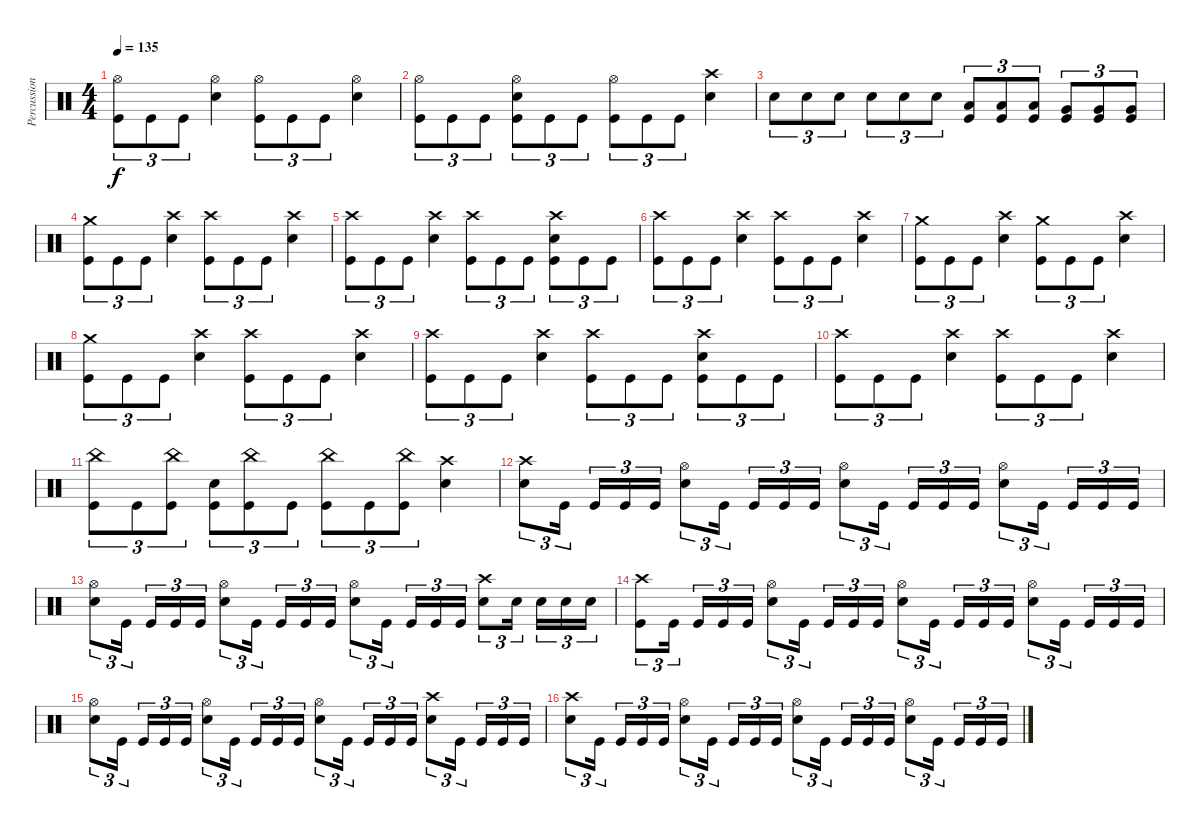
\track ("Percussions" "Percussion") {instrument percussion}
\staff {score}
\articulation defaults
\ts (4 4)
\tempo 135
\clef neutral
\ks c
("Hi-Hat (open)" "Kick (hit)").8{tu (3 2) dy f} "Kick (hit)".8{tu (3 2)} "Kick (hit)".8{tu (3 2)} ("Hi-Hat (open)" "Electric Snare (hit)").4 ("Hi-Hat (open)" "Kick (hit)").8{tu (3 2)} "Kick (hit)".8{tu (3 2)} "Kick (hit)".8{tu (3 2)} ("Hi-Hat (open)" "Electric Snare (hit)").4 |
("Hi-Hat (open)" "Kick (hit)").8{tu (3 2)} "Kick (hit)".8{tu (3 2)} "Kick (hit)".8{tu (3 2)} ("Hi-Hat (open)" "Electric Snare (hit)" "Kick (hit)").8{tu (3 2)} "Kick (hit)".8{tu (3 2)} "Kick (hit)".8{tu (3 2)} ("Hi-Hat (open)" "Kick (hit)").8{tu (3 2)} "Kick (hit)".8{tu (3 2)} "Kick (hit)".8{tu (3 2)} ("Crash high (hit)" "Electric Snare (hit)").4 |
"Electric Snare (hit)".8{tu (3 2)} "Electric Snare (hit)".8{tu (3 2)} "Electric Snare (hit)".8{tu (3 2)} "Electric Snare (hit)".8{tu (3 2)} "Electric Snare (hit)".8{tu (3 2)} "Electric Snare (hit)".8{tu (3 2)} ("Low Tom (hit)" "Kick (hit)").8{tu (3 2)} ("Low Tom (hit)" "Kick (hit)").8{tu (3 2)} ("Low Tom (hit)" "Kick (hit)").8{tu (3 2)} ("Very Low Tom (hit)" "Kick (hit)").8{tu (3 2)} ("Very Low Tom (hit)" "Kick (hit)").8{tu (3 2)} ("Very Low Tom (hit)" "Kick (hit)").8{tu (3 2)} |
("Crash medium (hit)" "Kick (hit)").8{tu (3 2)} "Kick (hit)".8{tu (3 2)} "Kick (hit)".8{tu (3 2)} ("Crash high (hit)" "Electric Snare (hit)").4 ("Crash high (hit)" "Kick (hit)").8{tu (3 2)} "Kick (hit)".8{tu (3 2)} "Kick (hit)".8{tu (3 2)} ("Crash high (hit)" "Electric Snare (hit)").4 |
("Crash high (hit)" "Kick (hit)").8{tu (3 2)} "Kick (hit)".8{tu (3 2)} "Kick (hit)".8{tu (3 2)} ("Crash high (hit)" "Electric Snare (hit)").4 ("Crash high (hit)" "Kick (hit)").8{tu (3 2)} "Kick (hit)".8{tu (3 2)} "Kick (hit)".8{tu (3 2)} ("Crash high (hit)" "Electric Snare (hit)" "Kick (hit)").8{tu (3 2)} "Kick (hit)".8{tu (3 2)} "Kick (hit)".8{tu (3 2)} |
("Crash high (hit)" "Kick (hit)").8{tu (3 2)} "Kick (hit)".8{tu (3 2)} "Kick (hit)".8{tu (3 2)} ("Crash high (hit)" "Electric Snare (hit)").4 ("Crash high (hit)" "Kick (hit)").8{tu (3 2)} "Kick (hit)".8{tu (3 2)} "Kick (hit)".8{tu (3 2)} ("Crash high (hit)" "Electric Snare (hit)").4 |
("Crash medium (hit)" "Kick (hit)").8{tu (3 2)} "Kick (hit)".8{tu (3 2)} "Kick (hit)".8{tu (3 2)} ("Crash high (hit)" "Electric Snare (hit)").4 ("Crash medium (hit)" "Kick (hit)").8{tu (3 2)} "Kick (hit)".8{tu (3 2)} "Kick (hit)".8{tu (3 2)} ("Crash high (hit)" "Electric Snare (hit)").4 |
("Crash medium (hit)" "Kick (hit)").8{tu (3 2)} "Kick (hit)".8{tu (3 2)} "Kick (hit)".8{tu (3 2)} ("Crash high (hit)" "Electric Snare (hit)").4 ("Crash high (hit)" "Kick (hit)").8{tu (3 2)} "Kick (hit)".8{tu (3 2)} "Kick (hit)".8{tu (3 2)} ("Crash high (hit)" "Electric Snare (hit)").4 |
("Crash high (hit)" "Kick (hit)").8{tu (3 2)} "Kick (hit)".8{tu (3 2)} "Kick (hit)".8{tu (3 2)} ("Crash high (hit)" "Electric Snare (hit)").4 ("Crash high (hit)" "Kick (hit)").8{tu (3 2)} "Kick (hit)".8{tu (3 2)} "Kick (hit)".8{tu (3 2)} ("Crash high (hit)" "Electric Snare (hit)" "Kick (hit)").8{tu (3 2)} "Kick (hit)".8{tu (3 2)} "Kick (hit)".8{tu (3 2)} |
("Crash high (hit)" "Kick (hit)").8{tu (3 2)} "Kick (hit)".8{tu (3 2)} "Kick (hit)".8{tu (3 2)} ("Crash high (hit)" "Electric Snare (hit)").4 ("Crash high (hit)" "Kick (hit)").8{tu (3 2)} "Kick (hit)".8{tu (3 2)} "Kick (hit)".8{tu (3 2)} ("Crash high (hit)" "Electric Snare (hit)").4 |
("China (hit)" "Kick (hit)").8{tu (3 2)} "Kick (hit)".8{tu (3 2)} ("China (hit)" "Kick (hit)").8{tu (3 2)} ("Electric Snare (hit)" "Kick (hit)").8{tu (3 2)} ("China (hit)" "Kick (hit)").8{tu (3 2)} "Kick (hit)".8{tu (3 2)} ("China (hit)" "Kick (hit)").8{tu (3 2)} "Kick (hit)".8{tu (3 2)} ("China (hit)" "Kick (hit)").8{tu (3 2)} ("Crash high (hit)" "Electric Snare (hit)").4 |
("Crash high (hit)" "Electric Snare (hit)").8{tu (3 2)} "Kick (hit)".16{tu (3 2) beam splitsecondary} "Kick (hit)".16{tu (3 2)} "Kick (hit)".16{tu (3 2)} "Kick (hit)".16{tu (3 2)} ("Hi-Hat (open)" "Electric Snare (hit)").8{tu (3 2)} "Kick (hit)".16{tu (3 2) beam splitsecondary} "Kick (hit)".16{tu (3 2)} "Kick (hit)".16{tu (3 2)} "Kick (hit)".16{tu (3 2)} ("Hi-Hat (open)" "Electric Snare (hit)").8{tu (3 2)} "Kick (hit)".16{tu (3 2) beam splitsecondary} "Kick (hit)".16{tu (3 2)} "Kick (hit)".16{tu (3 2)} "Kick (hit)".16{tu (3 2)} ("Hi-Hat (open)" "Electric Snare (hit)").8{tu (3 2)} "Kick (hit)".16{tu (3 2) beam splitsecondary} "Kick (hit)".16{tu (3 2)} "Kick (hit)".16{tu (3 2)} "Kick (hit)".16{tu (3 2)} |
("Hi-Hat (open)" "Electric Snare (hit)").8{tu (3 2)} "Kick (hit)".16{tu (3 2) beam splitsecondary} "Kick (hit)".16{tu (3 2)} "Kick (hit)".16{tu (3 2)} "Kick (hit)".16{tu (3 2)} ("Hi-Hat (open)" "Electric Snare (hit)").8{tu (3 2)} "Kick (hit)".16{tu (3 2) beam splitsecondary} "Kick (hit)".16{tu (3 2)} "Kick (hit)".16{tu (3 2)} "Kick (hit)".16{tu (3 2)} ("Hi-Hat (open)" "Electric Snare (hit)").8{tu (3 2)} "Kick (hit)".16{tu (3 2) beam splitsecondary} "Kick (hit)".16{tu (3 2)} "Kick (hit)".16{tu (3 2)} "Kick (hit)".16{tu (3 2)} ("Crash high (hit)" "Electric Snare (hit)").8{tu (3 2)} "Electric Snare (hit)".16{tu (3 2) beam splitsecondary} "Electric Snare (hit)".16{tu (3 2)} "Electric Snare (hit)".16{tu (3 2)} "Electric Snare (hit)".16{tu (3 2)} |
("Crash high (hit)" "Kick (hit)").8{tu (3 2)} "Kick (hit)".16{tu (3 2) beam splitsecondary} "Kick (hit)".16{tu (3 2)} "Kick (hit)".16{tu (3 2)} "Kick (hit)".16{tu (3 2)} ("Hi-Hat (open)" "Electric Snare (hit)").8{tu (3 2)} "Kick (hit)".16{tu (3 2) beam splitsecondary} "Kick (hit)".16{tu (3 2)} "Kick (hit)".16{tu (3 2)} "Kick (hit)".16{tu (3 2)} ("Hi-Hat (open)" "Electric Snare (hit)").8{tu (3 2)} "Kick (hit)".16{tu (3 2) beam splitsecondary} "Kick (hit)".16{tu (3 2)} "Kick (hit)".16{tu (3 2)} "Kick (hit)".16{tu (3 2)} ("Hi-Hat (open)" "Electric Snare (hit)").8{tu (3 2)} "Kick (hit)".16{tu (3 2) beam splitsecondary} "Kick (hit)".16{tu (3 2)} "Kick (hit)".16{tu (3 2)} "Kick (hit)".16{tu (3 2)} |
("Hi-Hat (open)" "Electric Snare (hit)").8{tu (3 2)} "Kick (hit)".16{tu (3 2) beam splitsecondary} "Kick (hit)".16{tu (3 2)} "Kick (hit)".16{tu (3 2)} "Kick (hit)".16{tu (3 2)} ("Hi-Hat (open)" "Electric Snare (hit)").8{tu (3 2)} "Kick (hit)".16{tu (3 2) beam splitsecondary} "Kick (hit)".16{tu (3 2)} "Kick (hit)".16{tu (3 2)} "Kick (hit)".16{tu (3 2)} ("Hi-Hat (open)" "Electric Snare (hit)").8{tu (3 2)} "Kick (hit)".16{tu (3 2) beam splitsecondary} "Kick (hit)".16{tu (3 2)} "Kick (hit)".16{tu (3 2)} "Kick (hit)".16{tu (3 2)} ("Crash high (hit)" "Electric Snare (hit)").8{tu (3 2)} "Kick (hit)".16{tu (3 2) beam splitsecondary} "Kick (hit)".16{tu (3 2)} "Kick (hit)".16{tu (3 2)} "Kick (hit)".16{tu (3 2)} |
("Crash high (hit)" "Electric Snare (hit)").8{tu (3 2)} "Kick (hit)".16{tu (3 2) beam splitsecondary} "Kick (hit)".16{tu (3 2)} "Kick (hit)".16{tu (3 2)} "Kick (hit)".16{tu (3 2)} ("Hi-Hat (open)" "Electric Snare (hit)").8{tu (3 2)} "Kick (hit)".16{tu (3 2) beam splitsecondary} "Kick (hit)".16{tu (3 2)} "Kick (hit)".16{tu (3 2)} "Kick (hit)".16{tu (3 2)} ("Hi-Hat (open)" "Electric Snare (hit)").8{tu (3 2)} "Kick (hit)".16{tu (3 2) beam splitsecondary} "Kick (hit)".16{tu (3 2)} "Kick (hit)".16{tu (3 2)} "Kick (hit)".16{tu (3 2)} ("Hi-Hat (open)" "Electric Snare (hit)").8{tu (3 2)} "Kick (hit)".16{tu (3 2) beam splitsecondary} "Kick (hit)".16{tu (3 2)} "Kick (hit)".16{tu (3 2)} "Kick (hit)".16{tu (3 2)}
